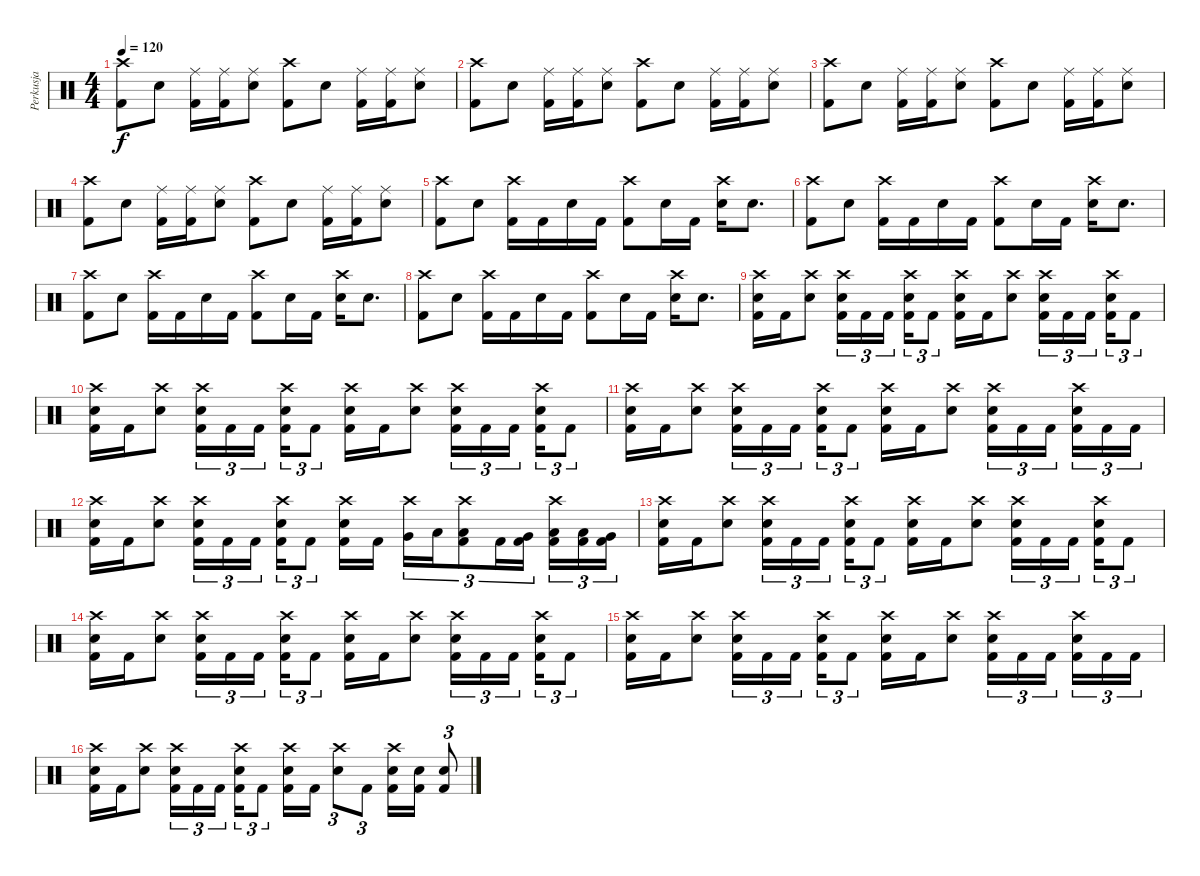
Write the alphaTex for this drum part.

\track ("Perkusja" "Perkusja") {instrument percussion}
\staff {score}
\articulation defaults
\ts (4 4)
\tempo 120
\clef neutral
\ks c
("Crash high (hit)" "Kick (hit) 2").8{dy f} "Electric Snare (hit)".8 ("Ride (middle)" "Kick (hit) 2").16 ("Ride (middle)" "Kick (hit) 2").16 ("Ride (middle)" "Electric Snare (hit)").8 ("Crash high (hit)" "Kick (hit) 2").8 "Electric Snare (hit)".8 ("Ride (middle)" "Kick (hit) 2").16 ("Ride (middle)" "Kick (hit) 2").16 ("Ride (middle)" "Electric Snare (hit)").8 |
("Crash high (hit)" "Kick (hit) 2").8 "Electric Snare (hit)".8 ("Ride (middle)" "Kick (hit) 2").16 ("Ride (middle)" "Kick (hit) 2").16 ("Ride (middle)" "Electric Snare (hit)").8 ("Crash high (hit)" "Kick (hit) 2").8 "Electric Snare (hit)".8 ("Ride (middle)" "Kick (hit) 2").16 ("Ride (middle)" "Kick (hit) 2").16 ("Ride (middle)" "Electric Snare (hit)").8 |
("Crash high (hit)" "Kick (hit) 2").8 "Electric Snare (hit)".8 ("Ride (middle)" "Kick (hit) 2").16 ("Ride (middle)" "Kick (hit) 2").16 ("Ride (middle)" "Electric Snare (hit)").8 ("Crash high (hit)" "Kick (hit) 2").8 "Electric Snare (hit)".8 ("Ride (middle)" "Kick (hit) 2").16 ("Ride (middle)" "Kick (hit) 2").16 ("Ride (middle)" "Electric Snare (hit)").8 |
("Crash high (hit)" "Kick (hit) 2").8 "Electric Snare (hit)".8 ("Ride (middle)" "Kick (hit) 2").16 ("Ride (middle)" "Kick (hit) 2").16 ("Ride (middle)" "Electric Snare (hit)").8 ("Crash high (hit)" "Kick (hit) 2").8 "Electric Snare (hit)".8 ("Ride (middle)" "Kick (hit) 2").16 ("Ride (middle)" "Kick (hit) 2").16 ("Ride (middle)" "Electric Snare (hit)").8 |
("Crash high (hit)" "Kick (hit) 2").8 "Electric Snare (hit)".8 ("Crash high (hit)" "Kick (hit) 2").16 "Kick (hit) 2".16 "Electric Snare (hit)".16 "Kick (hit) 2".16 ("Crash high (hit)" "Kick (hit) 2").8 "Electric Snare (hit)".16 "Kick (hit) 2".16 ("Crash high (hit)" "Electric Snare (hit)").16 "Electric Snare (hit)".8{d} |
("Crash high (hit)" "Kick (hit) 2").8 "Electric Snare (hit)".8 ("Crash high (hit)" "Kick (hit) 2").16 "Kick (hit) 2".16 "Electric Snare (hit)".16 "Kick (hit) 2".16 ("Crash high (hit)" "Kick (hit) 2").8 "Electric Snare (hit)".16 "Kick (hit) 2".16 ("Crash high (hit)" "Electric Snare (hit)").16 "Electric Snare (hit)".8{d} |
("Crash high (hit)" "Kick (hit) 2").8 "Electric Snare (hit)".8 ("Crash high (hit)" "Kick (hit) 2").16 "Kick (hit) 2".16 "Electric Snare (hit)".16 "Kick (hit) 2".16 ("Crash high (hit)" "Kick (hit) 2").8 "Electric Snare (hit)".16 "Kick (hit) 2".16 ("Crash high (hit)" "Electric Snare (hit)").16 "Electric Snare (hit)".8{d} |
("Crash high (hit)" "Kick (hit) 2").8 "Electric Snare (hit)".8 ("Crash high (hit)" "Kick (hit) 2").16 "Kick (hit) 2".16 "Electric Snare (hit)".16 "Kick (hit) 2".16 ("Crash high (hit)" "Kick (hit) 2").8 "Electric Snare (hit)".16 "Kick (hit) 2".16 ("Crash high (hit)" "Electric Snare (hit)").16 "Electric Snare (hit)".8{d} |
("Crash high (hit)" "Electric Snare (hit)" "Kick (hit) 2").16 "Kick (hit) 2".16 ("Crash high (hit)" "Electric Snare (hit)").8 ("Crash high (hit)" "Electric Snare (hit)" "Kick (hit) 2").16{tu (3 2)} "Kick (hit) 2".16{tu (3 2)} "Kick (hit) 2".16{tu (3 2) beam splitsecondary} ("Crash high (hit)" "Electric Snare (hit)" "Kick (hit) 2").16{tu (3 2)} "Kick (hit) 2".8{tu (3 2)} ("Crash high (hit)" "Electric Snare (hit)" "Kick (hit) 2").16 "Kick (hit) 2".16 ("Crash high (hit)" "Electric Snare (hit)").8 ("Crash high (hit)" "Electric Snare (hit)" "Kick (hit) 2").16{tu (3 2)} "Kick (hit) 2".16{tu (3 2)} "Kick (hit) 2".16{tu (3 2) beam splitsecondary} ("Crash high (hit)" "Electric Snare (hit)" "Kick (hit) 2").16{tu (3 2)} "Kick (hit) 2".8{tu (3 2)} |
("Crash high (hit)" "Electric Snare (hit)" "Kick (hit) 2").16 "Kick (hit) 2".16 ("Crash high (hit)" "Electric Snare (hit)").8 ("Crash high (hit)" "Electric Snare (hit)" "Kick (hit) 2").16{tu (3 2)} "Kick (hit) 2".16{tu (3 2)} "Kick (hit) 2".16{tu (3 2) beam splitsecondary} ("Crash high (hit)" "Electric Snare (hit)" "Kick (hit) 2").16{tu (3 2)} "Kick (hit) 2".8{tu (3 2)} ("Crash high (hit)" "Electric Snare (hit)" "Kick (hit) 2").16 "Kick (hit) 2".16 ("Crash high (hit)" "Electric Snare (hit)").8 ("Crash high (hit)" "Electric Snare (hit)" "Kick (hit) 2").16{tu (3 2)} "Kick (hit) 2".16{tu (3 2)} "Kick (hit) 2".16{tu (3 2) beam splitsecondary} ("Crash high (hit)" "Electric Snare (hit)" "Kick (hit) 2").16{tu (3 2)} "Kick (hit) 2".8{tu (3 2)} |
("Crash high (hit)" "Electric Snare (hit)" "Kick (hit) 2").16 "Kick (hit) 2".16 ("Crash high (hit)" "Electric Snare (hit)").8 ("Crash high (hit)" "Electric Snare (hit)" "Kick (hit) 2").16{tu (3 2)} "Kick (hit) 2".16{tu (3 2)} "Kick (hit) 2".16{tu (3 2) beam splitsecondary} ("Crash high (hit)" "Electric Snare (hit)" "Kick (hit) 2").16{tu (3 2)} "Kick (hit) 2".8{tu (3 2)} ("Crash high (hit)" "Electric Snare (hit)" "Kick (hit) 2").16 "Kick (hit) 2".16 ("Crash high (hit)" "Electric Snare (hit)").8 ("Crash high (hit)" "Electric Snare (hit)" "Kick (hit) 2").16{tu (3 2)} "Kick (hit) 2".16{tu (3 2)} "Kick (hit) 2".16{tu (3 2) beam splitsecondary} ("Crash high (hit)" "Electric Snare (hit)" "Kick (hit) 2").16{tu (3 2)} "Kick (hit) 2".16{tu (3 2)} "Kick (hit) 2".16{tu (3 2)} |
("Crash high (hit)" "Electric Snare (hit)" "Kick (hit) 2").16 "Kick (hit) 2".16 ("Crash high (hit)" "Electric Snare (hit)").8 ("Crash high (hit)" "Electric Snare (hit)" "Kick (hit) 2").16{tu (3 2)} "Kick (hit) 2".16{tu (3 2)} "Kick (hit) 2".16{tu (3 2) beam splitsecondary} ("Crash high (hit)" "Electric Snare (hit)" "Kick (hit) 2").16{tu (3 2)} "Kick (hit) 2".8{tu (3 2)} ("Crash high (hit)" "Electric Snare (hit)" "Kick (hit) 2").16 "Kick (hit) 2".16{beam splitsecondary} ("Crash high (hit)" "Very Low Tom (hit)").16{tu (3 2)} "Low Floor Tom (hit)".16{tu (3 2)} ("Crash high (hit)" "Low Floor Tom (hit)" "Kick (hit) 2").8{tu (3 2)} "Kick (hit) 2".16{tu (3 2)} ("Very Low Tom (hit)" "Kick (hit) 2").16{tu (3 2) beam splitsecondary} ("Crash high (hit)" "Low Tom (hit)" "Kick (hit) 2").16{tu (3 2)} ("Low Tom (hit)" "Kick (hit) 2").16{tu (3 2)} ("Very Low Tom (hit)" "Kick (hit) 2").16{tu (3 2)} |
("Crash high (hit)" "Electric Snare (hit)" "Kick (hit) 2").16 "Kick (hit) 2".16 ("Crash high (hit)" "Electric Snare (hit)").8 ("Crash high (hit)" "Electric Snare (hit)" "Kick (hit) 2").16{tu (3 2)} "Kick (hit) 2".16{tu (3 2)} "Kick (hit) 2".16{tu (3 2) beam splitsecondary} ("Crash high (hit)" "Electric Snare (hit)" "Kick (hit) 2").16{tu (3 2)} "Kick (hit) 2".8{tu (3 2)} ("Crash high (hit)" "Electric Snare (hit)" "Kick (hit) 2").16 "Kick (hit) 2".16 ("Crash high (hit)" "Electric Snare (hit)").8 ("Crash high (hit)" "Electric Snare (hit)" "Kick (hit) 2").16{tu (3 2)} "Kick (hit) 2".16{tu (3 2)} "Kick (hit) 2".16{tu (3 2) beam splitsecondary} ("Crash high (hit)" "Electric Snare (hit)" "Kick (hit) 2").16{tu (3 2)} "Kick (hit) 2".8{tu (3 2)} |
("Crash high (hit)" "Electric Snare (hit)" "Kick (hit) 2").16 "Kick (hit) 2".16 ("Crash high (hit)" "Electric Snare (hit)").8 ("Crash high (hit)" "Electric Snare (hit)" "Kick (hit) 2").16{tu (3 2)} "Kick (hit) 2".16{tu (3 2)} "Kick (hit) 2".16{tu (3 2) beam splitsecondary} ("Crash high (hit)" "Electric Snare (hit)" "Kick (hit) 2").16{tu (3 2)} "Kick (hit) 2".8{tu (3 2)} ("Crash high (hit)" "Electric Snare (hit)" "Kick (hit) 2").16 "Kick (hit) 2".16 ("Crash high (hit)" "Electric Snare (hit)").8 ("Crash high (hit)" "Electric Snare (hit)" "Kick (hit) 2").16{tu (3 2)} "Kick (hit) 2".16{tu (3 2)} "Kick (hit) 2".16{tu (3 2) beam splitsecondary} ("Crash high (hit)" "Electric Snare (hit)" "Kick (hit) 2").16{tu (3 2)} "Kick (hit) 2".8{tu (3 2)} |
("Crash high (hit)" "Electric Snare (hit)" "Kick (hit) 2").16 "Kick (hit) 2".16 ("Crash high (hit)" "Electric Snare (hit)").8 ("Crash high (hit)" "Electric Snare (hit)" "Kick (hit) 2").16{tu (3 2)} "Kick (hit) 2".16{tu (3 2)} "Kick (hit) 2".16{tu (3 2) beam splitsecondary} ("Crash high (hit)" "Electric Snare (hit)" "Kick (hit) 2").16{tu (3 2)} "Kick (hit) 2".8{tu (3 2)} ("Crash high (hit)" "Electric Snare (hit)" "Kick (hit) 2").16 "Kick (hit) 2".16 ("Crash high (hit)" "Electric Snare (hit)").8 ("Crash high (hit)" "Electric Snare (hit)" "Kick (hit) 2").16{tu (3 2)} "Kick (hit) 2".16{tu (3 2)} "Kick (hit) 2".16{tu (3 2) beam splitsecondary} ("Crash high (hit)" "Electric Snare (hit)" "Kick (hit) 2").16{tu (3 2)} "Kick (hit) 2".16{tu (3 2)} "Kick (hit) 2".16{tu (3 2)} |
("Crash high (hit)" "Electric Snare (hit)" "Kick (hit) 2").16 "Kick (hit) 2".16 ("Crash high (hit)" "Electric Snare (hit)").8 ("Crash high (hit)" "Electric Snare (hit)" "Kick (hit) 2").16{tu (3 2)} "Kick (hit) 2".16{tu (3 2)} "Kick (hit) 2".16{tu (3 2) beam splitsecondary} ("Crash high (hit)" "Electric Snare (hit)" "Kick (hit) 2").16{tu (3 2)} "Kick (hit) 2".8{tu (3 2)} ("Crash high (hit)" "Electric Snare (hit)" "Kick (hit) 2").16 "Kick (hit) 2".16 ("Crash high (hit)" "Electric Snare (hit)").8{tu (3 2)} "Kick (hit) 2".8{tu (3 2)} ("Crash high (hit)" "Electric Snare (hit)" "Kick (hit) 2").16 ("Electric Snare (hit)" "Kick (hit) 2").16 ("Electric Snare (hit)" "Kick (hit) 2").8{tu (3 2)}
